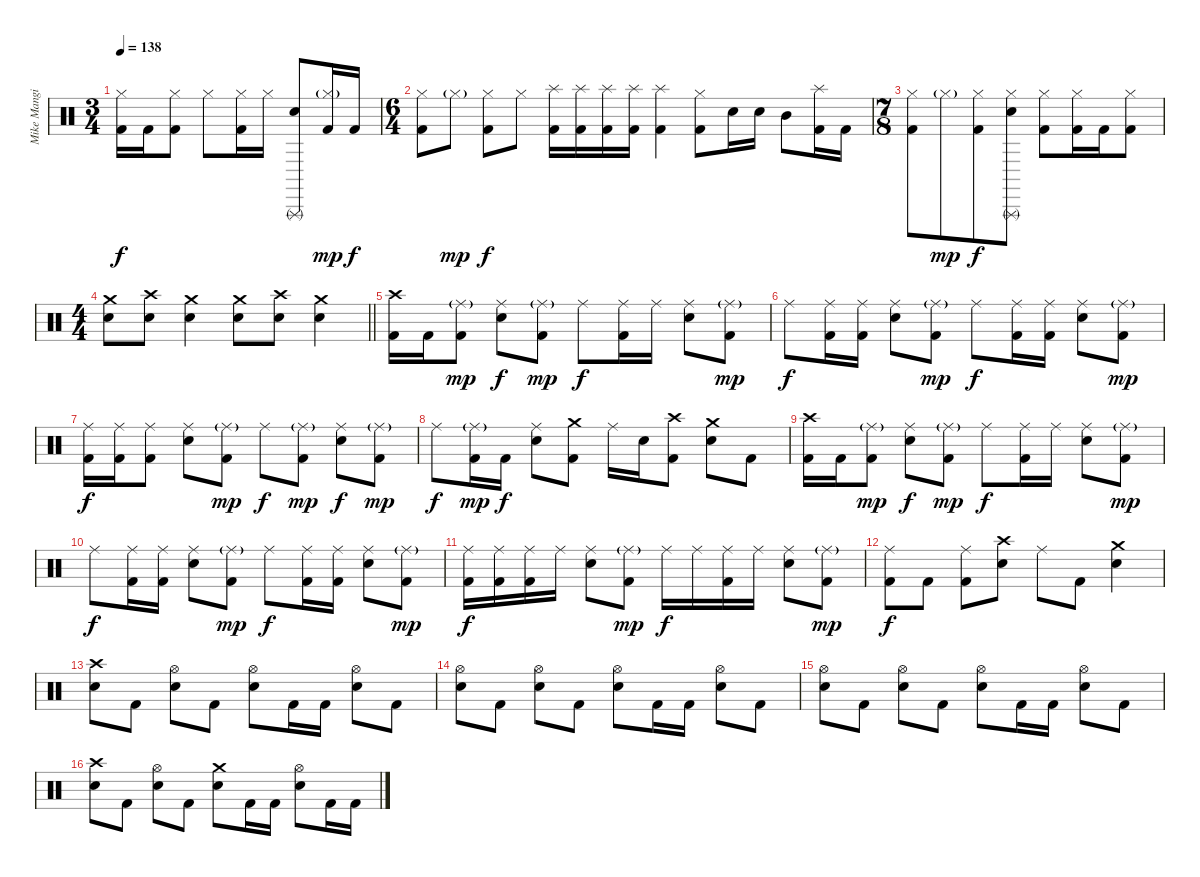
\track ("Mike Mangini" "Mike Mangi") {instrument percussion}
\staff {score}
\articulation defaults
\ts (3 4)
\tempo 138
\clef neutral
\ks c
("Hi-Hat (closed)" "Kick (hit) 2").16{dy f} "Kick (hit) 2".16 ("Hi-Hat (closed)" "Kick (hit) 2").8 "Hi-Hat (closed)".8 ("Hi-Hat (closed)" "Kick (hit) 2").16 "Hi-Hat (closed)".16 ("Triangle (rnute)" "Electric Snare (hit)").8 ("Hi-Hat (closed)"{g} "Kick (hit) 2").16{dy mp} "Kick (hit) 2".16{dy f} |
\ts (6 4)
("Hi-Hat (closed)" "Kick (hit) 2").8 "Hi-Hat (closed)"{g}.8{dy mp} ("Hi-Hat (closed)" "Kick (hit) 2").8{dy f} "Hi-Hat (closed)".8 ("Splash (hit)" "Kick (hit) 2").16 ("Splash (hit)" "Kick (hit) 2").16 ("Splash (hit)" "Kick (hit) 2").16 ("Splash (hit)" "Kick (hit) 2").16 ("Splash (hit)" "Kick (hit) 2").4 ("Hi-Hat (closed)" "Kick (hit) 2").8 "Electric Snare (hit)".16 "Electric Snare (hit)".16 "Mid Tom (hit)".8 ("Splash (hit)" "Kick (hit) 2").16 "Kick (hit) 2".16 |
\ts (7 8)
("Hi-Hat (closed)" "Kick (hit) 2").8 "Hi-Hat (closed)"{g}.8{dy mp} ("Hi-Hat (closed)" "Kick (hit) 2").8{dy f} ("Triangle (rnute)" "Hi-Hat (closed)" "Electric Snare (hit)").8 ("Hi-Hat (closed)" "Kick (hit) 2").8 ("Hi-Hat (closed)" "Kick (hit) 2").16 "Kick (hit) 2".16 ("Hi-Hat (closed)" "Kick (hit) 2").8 |
\ts (4 4)
\barLineRight lightlight
("Crash medium (hit)" "Electric Snare (hit)").8 ("Crash high (hit)" "Electric Snare (hit)").8 ("Crash medium (hit)" "Electric Snare (hit)").4 ("Crash medium (hit)" "Electric Snare (hit)").8 ("Crash high (hit)" "Electric Snare (hit)").8 ("Crash medium (hit)" "Electric Snare (hit)").4 |
("Crash high (hit)" "Kick (hit) 2").16 "Kick (hit) 2".16 ("Ride (middle)"{g} "Kick (hit) 2").8{dy mp} ("Ride (middle)" "Electric Snare (hit)").8{dy f} ("Ride (middle)"{g} "Kick (hit) 2").8{dy mp} "Ride (middle)".8{dy f} ("Ride (middle)" "Kick (hit) 2").16 "Ride (middle)".16 ("Ride (middle)" "Electric Snare (hit)").8 ("Ride (middle)"{g} "Kick (hit) 2").8{dy mp} |
"Ride (middle)".8{dy f} ("Ride (middle)" "Kick (hit) 2").16 ("Ride (middle)" "Kick (hit) 2").16 ("Ride (middle)" "Electric Snare (hit)").8 ("Ride (middle)"{g} "Kick (hit) 2").8{dy mp} "Ride (middle)".8{dy f} ("Ride (middle)" "Kick (hit) 2").16 ("Ride (middle)" "Kick (hit) 2").16 ("Ride (middle)" "Electric Snare (hit)").8 ("Ride (middle)"{g} "Kick (hit) 2").8{dy mp} |
("Ride (middle)" "Kick (hit) 2").16{dy f} ("Ride (middle)" "Kick (hit) 2").16 ("Ride (middle)" "Kick (hit) 2").8 ("Ride (middle)" "Electric Snare (hit)").8 ("Ride (middle)"{g} "Kick (hit) 2").8{dy mp} "Ride (middle)".8{dy f} ("Ride (middle)"{g} "Kick (hit) 2").8{dy mp} ("Ride (middle)" "Electric Snare (hit)").8{dy f} ("Ride (middle)"{g} "Kick (hit) 2").8{dy mp} |
"Ride (middle)".8{dy f} ("Ride (middle)"{g} "Kick (hit) 2").16{dy mp} "Kick (hit) 2".16{dy f} ("Ride (middle)" "Electric Snare (hit)").8 ("Crash medium (hit)" "Kick (hit) 2").8 "Ride (middle)".16 "Electric Snare (hit)".16 ("Crash high (hit)" "Kick (hit) 2").8 ("Crash medium (hit)" "Electric Snare (hit)").8 "Kick (hit) 2".8 |
("Crash high (hit)" "Kick (hit) 2").16 "Kick (hit) 2".16 ("Ride (middle)"{g} "Kick (hit) 2").8{dy mp} ("Ride (middle)" "Electric Snare (hit)").8{dy f} ("Ride (middle)"{g} "Kick (hit) 2").8{dy mp} "Ride (middle)".8{dy f} ("Ride (middle)" "Kick (hit) 2").16 "Ride (middle)".16 ("Ride (middle)" "Electric Snare (hit)").8 ("Ride (middle)"{g} "Kick (hit) 2").8{dy mp} |
"Ride (middle)".8{dy f} ("Ride (middle)" "Kick (hit) 2").16 ("Ride (middle)" "Kick (hit) 2").16 ("Ride (middle)" "Electric Snare (hit)").8 ("Ride (middle)"{g} "Kick (hit) 2").8{dy mp} "Ride (middle)".8{dy f} ("Ride (middle)" "Kick (hit) 2").16 ("Ride (middle)" "Kick (hit) 2").16 ("Ride (middle)" "Electric Snare (hit)").8 ("Ride (middle)"{g} "Kick (hit) 2").8{dy mp} |
("Ride (middle)" "Kick (hit) 2").16{dy f} ("Ride (middle)" "Kick (hit) 2").16 ("Ride (middle)" "Kick (hit) 2").16 "Ride (middle)".16 ("Ride (middle)" "Electric Snare (hit)").8 ("Ride (middle)"{g} "Kick (hit) 2").8{dy mp} "Ride (middle)".16{dy f} "Ride (middle)".16 ("Ride (middle)" "Kick (hit) 2").16 "Ride (middle)".16 ("Ride (middle)" "Electric Snare (hit)").8 ("Ride (middle)"{g} "Kick (hit) 2").8{dy mp} |
("Ride (middle)" "Kick (hit) 2").8{dy f} "Kick (hit) 2".8 ("Ride (middle)" "Kick (hit) 2").8 ("Crash high (hit)" "Electric Snare (hit)").8 "Ride (middle)".8 "Kick (hit) 2".8 ("Crash medium (hit)" "Electric Snare (hit)").4 |
("Crash high (hit)" "Electric Snare (hit)").8 "Kick (hit) 2".8 ("Hi-Hat (open)" "Electric Snare (hit)").8 "Kick (hit) 2".8 ("Hi-Hat (open)" "Electric Snare (hit)").8 "Kick (hit) 2".16 "Kick (hit) 2".16 ("Hi-Hat (open)" "Electric Snare (hit)").8 "Kick (hit) 2".8 |
("Hi-Hat (open)" "Electric Snare (hit)").8 "Kick (hit) 2".8 ("Hi-Hat (open)" "Electric Snare (hit)").8 "Kick (hit) 2".8 ("Hi-Hat (open)" "Electric Snare (hit)").8 "Kick (hit) 2".16 "Kick (hit) 2".16 ("Hi-Hat (open)" "Electric Snare (hit)").8 "Kick (hit) 2".8 |
("Hi-Hat (open)" "Electric Snare (hit)").8 "Kick (hit) 2".8 ("Hi-Hat (open)" "Electric Snare (hit)").8 "Kick (hit) 2".8 ("Hi-Hat (open)" "Electric Snare (hit)").8 "Kick (hit) 2".16 "Kick (hit) 2".16 ("Hi-Hat (open)" "Electric Snare (hit)").8 "Kick (hit) 2".8 |
("Crash high (hit)" "Electric Snare (hit)").8 "Kick (hit) 2".8 ("Hi-Hat (open)" "Electric Snare (hit)").8 "Kick (hit) 2".8 ("Crash medium (hit)" "Electric Snare (hit)").8 "Kick (hit) 2".16 "Kick (hit) 2".16 ("Hi-Hat (open)" "Electric Snare (hit)").8 "Kick (hit) 2".16 "Kick (hit) 2".16
